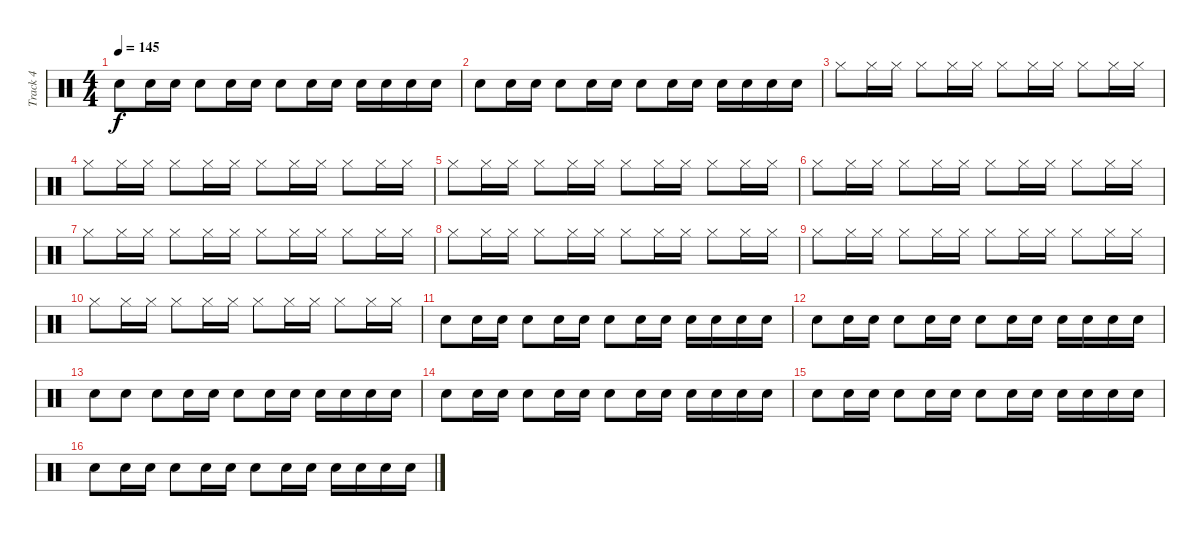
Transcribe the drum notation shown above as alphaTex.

\track ("Track 4" "Track 4") {instrument percussion}
\staff {score}
\articulation defaults
\ts (4 4)
\tempo 145
\clef neutral
\ks c "Snare (hit) 2".8{dy f} "Snare (hit) 2".16 "Snare (hit) 2".16 "Snare (hit) 2".8 "Snare (hit) 2".16 "Snare (hit) 2".16 "Snare (hit) 2".8 "Snare (hit) 2".16 "Snare (hit) 2".16 "Snare (hit) 2".16 "Snare (hit) 2".16 "Snare (hit) 2".16 "Snare (hit) 2".16
|
"Snare (hit) 2".8 "Snare (hit) 2".16 "Snare (hit) 2".16 "Snare (hit) 2".8 "Snare (hit) 2".16 "Snare (hit) 2".16 "Snare (hit) 2".8 "Snare (hit) 2".16 "Snare (hit) 2".16 "Snare (hit) 2".16 "Snare (hit) 2".16 "Snare (hit) 2".16 "Snare (hit) 2".16 |
"Hi-Hat (closed)".8 "Hi-Hat (closed)".16 "Hi-Hat (closed)".16 "Hi-Hat (closed)".8 "Hi-Hat (closed)".16 "Hi-Hat (closed)".16 "Hi-Hat (closed)".8 "Hi-Hat (closed)".16 "Hi-Hat (closed)".16 "Hi-Hat (closed)".8 "Hi-Hat (closed)".16 "Hi-Hat (closed)".16 |
"Hi-Hat (closed)".8 "Hi-Hat (closed)".16 "Hi-Hat (closed)".16 "Hi-Hat (closed)".8 "Hi-Hat (closed)".16 "Hi-Hat (closed)".16 "Hi-Hat (closed)".8 "Hi-Hat (closed)".16 "Hi-Hat (closed)".16 "Hi-Hat (closed)".8 "Hi-Hat (closed)".16 "Hi-Hat (closed)".16 |
"Hi-Hat (closed)".8 "Hi-Hat (closed)".16 "Hi-Hat (closed)".16 "Hi-Hat (closed)".8 "Hi-Hat (closed)".16 "Hi-Hat (closed)".16 "Hi-Hat (closed)".8 "Hi-Hat (closed)".16 "Hi-Hat (closed)".16 "Hi-Hat (closed)".8 "Hi-Hat (closed)".16 "Hi-Hat (closed)".16 |
"Hi-Hat (closed)".8 "Hi-Hat (closed)".16 "Hi-Hat (closed)".16 "Hi-Hat (closed)".8 "Hi-Hat (closed)".16 "Hi-Hat (closed)".16 "Hi-Hat (closed)".8 "Hi-Hat (closed)".16 "Hi-Hat (closed)".16 "Hi-Hat (closed)".8 "Hi-Hat (closed)".16 "Hi-Hat (closed)".16 |
"Hi-Hat (closed)".8 "Hi-Hat (closed)".16 "Hi-Hat (closed)".16 "Hi-Hat (closed)".8 "Hi-Hat (closed)".16 "Hi-Hat (closed)".16 "Hi-Hat (closed)".8 "Hi-Hat (closed)".16 "Hi-Hat (closed)".16 "Hi-Hat (closed)".8 "Hi-Hat (closed)".16 "Hi-Hat (closed)".16 |
"Hi-Hat (closed)".8 "Hi-Hat (closed)".16 "Hi-Hat (closed)".16 "Hi-Hat (closed)".8 "Hi-Hat (closed)".16 "Hi-Hat (closed)".16 "Hi-Hat (closed)".8 "Hi-Hat (closed)".16 "Hi-Hat (closed)".16 "Hi-Hat (closed)".8 "Hi-Hat (closed)".16 "Hi-Hat (closed)".16 |
"Hi-Hat (closed)".8 "Hi-Hat (closed)".16 "Hi-Hat (closed)".16 "Hi-Hat (closed)".8 "Hi-Hat (closed)".16 "Hi-Hat (closed)".16 "Hi-Hat (closed)".8 "Hi-Hat (closed)".16 "Hi-Hat (closed)".16 "Hi-Hat (closed)".8 "Hi-Hat (closed)".16 "Hi-Hat (closed)".16 |
"Hi-Hat (closed)".8 "Hi-Hat (closed)".16 "Hi-Hat (closed)".16 "Hi-Hat (closed)".8 "Hi-Hat (closed)".16 "Hi-Hat (closed)".16 "Hi-Hat (closed)".8 "Hi-Hat (closed)".16 "Hi-Hat (closed)".16 "Hi-Hat (closed)".8 "Hi-Hat (closed)".16 "Hi-Hat (closed)".16 |
"Snare (hit) 2".8 "Snare (hit) 2".16 "Snare (hit) 2".16 "Snare (hit) 2".8 "Snare (hit) 2".16 "Snare (hit) 2".16 "Snare (hit) 2".8 "Snare (hit) 2".16 "Snare (hit) 2".16 "Snare (hit) 2".16 "Snare (hit) 2".16 "Snare (hit) 2".16 "Snare (hit) 2".16 |
"Snare (hit) 2".8 "Snare (hit) 2".16 "Snare (hit) 2".16 "Snare (hit) 2".8 "Snare (hit) 2".16 "Snare (hit) 2".16 "Snare (hit) 2".8 "Snare (hit) 2".16 "Snare (hit) 2".16 "Snare (hit) 2".16 "Snare (hit) 2".16 "Snare (hit) 2".16 "Snare (hit) 2".16 |
"Snare (hit) 2".8 "Snare (hit) 2".8 "Snare (hit) 2".8 "Snare (hit) 2".16 "Snare (hit) 2".16 "Snare (hit) 2".8 "Snare (hit) 2".16 "Snare (hit) 2".16 "Snare (hit) 2".16 "Snare (hit) 2".16 "Snare (hit) 2".16 "Snare (hit) 2".16 |
"Snare (hit) 2".8 "Snare (hit) 2".16 "Snare (hit) 2".16 "Snare (hit) 2".8 "Snare (hit) 2".16 "Snare (hit) 2".16 "Snare (hit) 2".8 "Snare (hit) 2".16 "Snare (hit) 2".16 "Snare (hit) 2".16 "Snare (hit) 2".16 "Snare (hit) 2".16 "Snare (hit) 2".16 |
"Snare (hit) 2".8 "Snare (hit) 2".16 "Snare (hit) 2".16 "Snare (hit) 2".8 "Snare (hit) 2".16 "Snare (hit) 2".16 "Snare (hit) 2".8 "Snare (hit) 2".16 "Snare (hit) 2".16 "Snare (hit) 2".16 "Snare (hit) 2".16 "Snare (hit) 2".16 "Snare (hit) 2".16 |
"Snare (hit) 2".8 "Snare (hit) 2".16 "Snare (hit) 2".16 "Snare (hit) 2".8 "Snare (hit) 2".16 "Snare (hit) 2".16 "Snare (hit) 2".8 "Snare (hit) 2".16 "Snare (hit) 2".16 "Snare (hit) 2".16 "Snare (hit) 2".16 "Snare (hit) 2".16 "Snare (hit) 2".16
